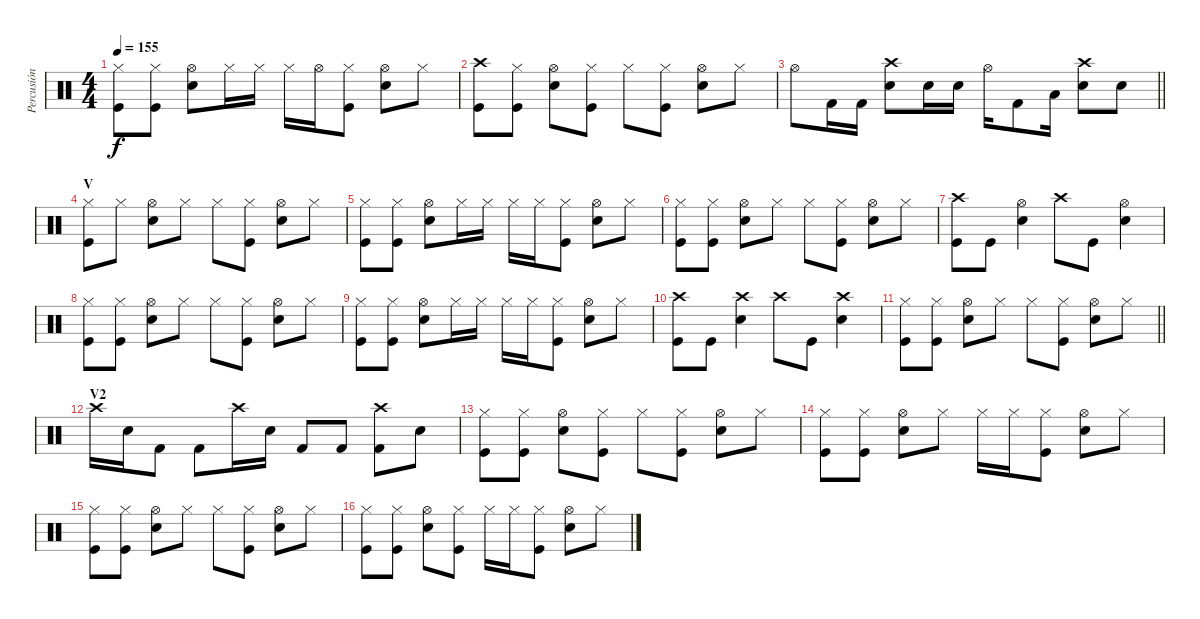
\track ("Percusión" "Percusión") {instrument percussion}
\staff {score}
\articulation defaults
\ts (4 4)
\tempo 155
\clef neutral
\ks c
("Hi-Hat (closed)" "Kick (hit)").8{dy f} ("Hi-Hat (closed)" "Kick (hit)").8 ("Hi-Hat (open)" "Snare (hit) 2").8 "Hi-Hat (closed)".16 "Hi-Hat (closed)".16 "Hi-Hat (closed)".16 "Hi-Hat (open)".16 ("Hi-Hat (closed)" "Kick (hit)").8 ("Hi-Hat (open)" "Snare (hit) 2").8 "Hi-Hat (closed)".8 |
("Crash high (hit)" "Kick (hit)").8 ("Hi-Hat (closed)" "Kick (hit)").8 ("Hi-Hat (open)" "Snare (hit) 2").8 ("Hi-Hat (closed)" "Kick (hit)").8 "Hi-Hat (closed)".8 ("Hi-Hat (closed)" "Kick (hit)").8 ("Hi-Hat (open)" "Snare (hit) 2").8 "Hi-Hat (closed)".8 |
\barLineRight lightlight "Hi-Hat (open)".8 "Kick (hit) 2".16 "Kick (hit) 2".16
("Crash high (hit)" "Snare (hit) 2").8 "Snare (hit) 2".16 "Snare (hit) 2".16 "Hi-Hat (open)".16 "Kick (hit) 2".8 "Low Floor Tom (hit)".16 ("Crash high (hit)" "Snare (hit) 2").8 "Snare (hit) 2".8 |
\section ("" "V")
("Hi-Hat (closed)" "Kick (hit)").8 "Hi-Hat (closed)".8 ("Hi-Hat (open)" "Snare (hit) 2").8 "Hi-Hat (closed)".8 "Hi-Hat (closed)".8 ("Hi-Hat (closed)" "Kick (hit)").8 ("Hi-Hat (open)" "Snare (hit) 2").8 "Hi-Hat (closed)".8 |
("Hi-Hat (closed)" "Kick (hit)").8 ("Hi-Hat (closed)" "Kick (hit)").8 ("Hi-Hat (open)" "Snare (hit) 2").8 "Hi-Hat (closed)".16 "Hi-Hat (closed)".16 "Hi-Hat (closed)".16 "Hi-Hat (closed)".16 ("Hi-Hat (closed)" "Kick (hit)").8 ("Hi-Hat (open)" "Snare (hit) 2").8 "Hi-Hat (closed)".8 |
("Hi-Hat (closed)" "Kick (hit)").8 ("Hi-Hat (closed)" "Kick (hit)").8 ("Hi-Hat (open)" "Snare (hit) 2").8 "Hi-Hat (closed)".8 "Hi-Hat (closed)".8 ("Hi-Hat (closed)" "Kick (hit)").8 ("Hi-Hat (open)" "Snare (hit) 2").8 "Hi-Hat (closed)".8 |
("Crash high (hit)" "Kick (hit)").8 "Kick (hit)".8 ("Hi-Hat (open)" "Snare (hit) 2").4 "Crash high (hit)".8 "Kick (hit)".8 ("Hi-Hat (open)" "Snare (hit) 2").4 |
("Hi-Hat (closed)" "Kick (hit)").8 ("Hi-Hat (closed)" "Kick (hit)").8 ("Hi-Hat (open)" "Snare (hit) 2").8 "Hi-Hat (closed)".8 "Hi-Hat (closed)".8 ("Hi-Hat (closed)" "Kick (hit)").8 ("Hi-Hat (open)" "Snare (hit) 2").8 "Hi-Hat (closed)".8 |
("Hi-Hat (closed)" "Kick (hit)").8 ("Hi-Hat (closed)" "Kick (hit)").8 ("Hi-Hat (open)" "Snare (hit) 2").8 "Hi-Hat (closed)".16 "Hi-Hat (closed)".16 "Hi-Hat (closed)".16 "Hi-Hat (closed)".16 ("Hi-Hat (closed)" "Kick (hit)").8 ("Hi-Hat (open)" "Snare (hit) 2").8 "Hi-Hat (closed)".8 |
("Crash high (hit)" "Kick (hit)").8 "Kick (hit)".8 ("Crash high (hit)" "Snare (hit) 2").4 "Crash high (hit)".8 "Kick (hit)".8 ("Crash high (hit)" "Snare (hit) 2").4 |
\barLineRight lightlight
("Hi-Hat (closed)" "Kick (hit)").8 ("Hi-Hat (closed)" "Kick (hit)").8 ("Hi-Hat (open)" "Snare (hit) 2").8 "Hi-Hat (closed)".8 "Hi-Hat (closed)".8 ("Hi-Hat (closed)" "Kick (hit)").8 ("Hi-Hat (open)" "Snare (hit) 2").8 "Hi-Hat (closed)".8 |
\section ("" "V2")
"Crash high (hit)".16 "Snare (hit) 2".16 "Kick (hit) 2".8 "Kick (hit) 2".8 "Crash high (hit)".16 "Snare (hit) 2".16 "Kick (hit) 2".8 "Kick (hit) 2".8 ("Crash high (hit)" "Kick (hit) 2").8 "Snare (hit) 2".8 |
("Hi-Hat (closed)" "Kick (hit)").8 ("Hi-Hat (closed)" "Kick (hit)").8 ("Hi-Hat (open)" "Snare (hit) 2").8 ("Hi-Hat (closed)" "Kick (hit)").8 "Hi-Hat (closed)".8 ("Hi-Hat (closed)" "Kick (hit)").8 ("Hi-Hat (open)" "Snare (hit) 2").8 "Hi-Hat (closed)".8 |
("Hi-Hat (closed)" "Kick (hit)").8 ("Hi-Hat (closed)" "Kick (hit)").8 ("Hi-Hat (open)" "Snare (hit) 2").8 "Hi-Hat (closed)".8 "Hi-Hat (closed)".16 "Hi-Hat (closed)".16 ("Hi-Hat (closed)" "Kick (hit)").8 ("Hi-Hat (open)" "Snare (hit) 2").8 "Hi-Hat (closed)".8 |
("Hi-Hat (closed)" "Kick (hit)").8 ("Hi-Hat (closed)" "Kick (hit)").8 ("Hi-Hat (open)" "Snare (hit) 2").8 "Hi-Hat (closed)".8 "Hi-Hat (closed)".8 ("Hi-Hat (closed)" "Kick (hit)").8 ("Hi-Hat (open)" "Snare (hit) 2").8 "Hi-Hat (closed)".8 |
("Hi-Hat (closed)" "Kick (hit)").8 ("Hi-Hat (closed)" "Kick (hit)").8 ("Hi-Hat (open)" "Snare (hit) 2").8 ("Hi-Hat (closed)" "Kick (hit)").8 "Hi-Hat (closed)".16 "Hi-Hat (closed)".16 ("Hi-Hat (closed)" "Kick (hit)").8 ("Hi-Hat (open)" "Snare (hit) 2").8 "Hi-Hat (closed)".8
